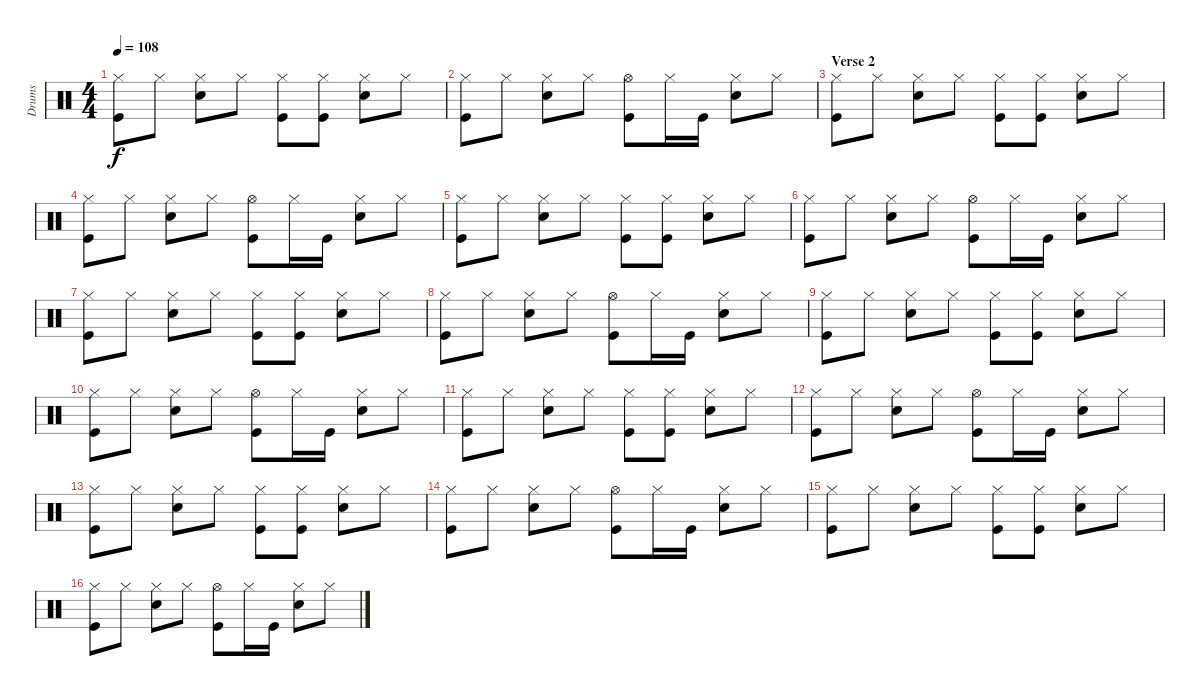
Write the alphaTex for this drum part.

\track ("Drums" "Drums") {instrument percussion}
\staff {score}
\articulation defaults
\ts (4 4)
\tempo 108
\clef neutral
\ks c
("Hi-Hat (closed)" "Kick (hit)").8{dy f} "Hi-Hat (closed)".8 ("Hi-Hat (closed)" "Snare (hit) 2").8 "Hi-Hat (closed)".8 ("Hi-Hat (closed)" "Kick (hit)").8 ("Hi-Hat (closed)" "Kick (hit)").8 ("Hi-Hat (closed)" "Snare (hit) 2").8 "Hi-Hat (closed)".8 |
("Hi-Hat (closed)" "Kick (hit)").8 "Hi-Hat (closed)".8 ("Hi-Hat (closed)" "Snare (hit) 2").8 "Hi-Hat (closed)".8 ("Hi-Hat (open)" "Kick (hit)").8 "Hi-Hat (closed)".16 "Kick (hit)".16 ("Hi-Hat (closed)" "Snare (hit) 2").8 "Hi-Hat (closed)".8 |
\section ("" "Verse 2")
("Hi-Hat (closed)" "Kick (hit)").8 "Hi-Hat (closed)".8 ("Hi-Hat (closed)" "Snare (hit) 2").8 "Hi-Hat (closed)".8 ("Hi-Hat (closed)" "Kick (hit)").8 ("Hi-Hat (closed)" "Kick (hit)").8 ("Hi-Hat (closed)" "Snare (hit) 2").8 "Hi-Hat (closed)".8 |
("Hi-Hat (closed)" "Kick (hit)").8 "Hi-Hat (closed)".8 ("Hi-Hat (closed)" "Snare (hit) 2").8 "Hi-Hat (closed)".8 ("Hi-Hat (open)" "Kick (hit)").8 "Hi-Hat (closed)".16 "Kick (hit)".16 ("Hi-Hat (closed)" "Snare (hit) 2").8 "Hi-Hat (closed)".8 |
("Hi-Hat (closed)" "Kick (hit)").8 "Hi-Hat (closed)".8 ("Hi-Hat (closed)" "Snare (hit) 2").8 "Hi-Hat (closed)".8 ("Hi-Hat (closed)" "Kick (hit)").8 ("Hi-Hat (closed)" "Kick (hit)").8 ("Hi-Hat (closed)" "Snare (hit) 2").8 "Hi-Hat (closed)".8 |
("Hi-Hat (closed)" "Kick (hit)").8 "Hi-Hat (closed)".8 ("Hi-Hat (closed)" "Snare (hit) 2").8 "Hi-Hat (closed)".8 ("Hi-Hat (open)" "Kick (hit)").8 "Hi-Hat (closed)".16 "Kick (hit)".16 ("Hi-Hat (closed)" "Snare (hit) 2").8 "Hi-Hat (closed)".8 |
("Hi-Hat (closed)" "Kick (hit)").8 "Hi-Hat (closed)".8 ("Hi-Hat (closed)" "Snare (hit) 2").8 "Hi-Hat (closed)".8 ("Hi-Hat (closed)" "Kick (hit)").8 ("Hi-Hat (closed)" "Kick (hit)").8 ("Hi-Hat (closed)" "Snare (hit) 2").8 "Hi-Hat (closed)".8 |
("Hi-Hat (closed)" "Kick (hit)").8 "Hi-Hat (closed)".8 ("Hi-Hat (closed)" "Snare (hit) 2").8 "Hi-Hat (closed)".8 ("Hi-Hat (open)" "Kick (hit)").8 "Hi-Hat (closed)".16 "Kick (hit)".16 ("Hi-Hat (closed)" "Snare (hit) 2").8 "Hi-Hat (closed)".8 |
("Hi-Hat (closed)" "Kick (hit)").8 "Hi-Hat (closed)".8 ("Hi-Hat (closed)" "Snare (hit) 2").8 "Hi-Hat (closed)".8 ("Hi-Hat (closed)" "Kick (hit)").8 ("Hi-Hat (closed)" "Kick (hit)").8 ("Hi-Hat (closed)" "Snare (hit) 2").8 "Hi-Hat (closed)".8 |
("Hi-Hat (closed)" "Kick (hit)").8 "Hi-Hat (closed)".8 ("Hi-Hat (closed)" "Snare (hit) 2").8 "Hi-Hat (closed)".8 ("Hi-Hat (open)" "Kick (hit)").8 "Hi-Hat (closed)".16 "Kick (hit)".16 ("Hi-Hat (closed)" "Snare (hit) 2").8 "Hi-Hat (closed)".8 |
("Hi-Hat (closed)" "Kick (hit)").8 "Hi-Hat (closed)".8 ("Hi-Hat (closed)" "Snare (hit) 2").8 "Hi-Hat (closed)".8 ("Hi-Hat (closed)" "Kick (hit)").8 ("Hi-Hat (closed)" "Kick (hit)").8 ("Hi-Hat (closed)" "Snare (hit) 2").8 "Hi-Hat (closed)".8 |
("Hi-Hat (closed)" "Kick (hit)").8 "Hi-Hat (closed)".8 ("Hi-Hat (closed)" "Snare (hit) 2").8 "Hi-Hat (closed)".8 ("Hi-Hat (open)" "Kick (hit)").8 "Hi-Hat (closed)".16 "Kick (hit)".16 ("Hi-Hat (closed)" "Snare (hit) 2").8 "Hi-Hat (closed)".8 |
("Hi-Hat (closed)" "Kick (hit)").8 "Hi-Hat (closed)".8 ("Hi-Hat (closed)" "Snare (hit) 2").8 "Hi-Hat (closed)".8 ("Hi-Hat (closed)" "Kick (hit)").8 ("Hi-Hat (closed)" "Kick (hit)").8 ("Hi-Hat (closed)" "Snare (hit) 2").8 "Hi-Hat (closed)".8 |
("Hi-Hat (closed)" "Kick (hit)").8 "Hi-Hat (closed)".8 ("Hi-Hat (closed)" "Snare (hit) 2").8 "Hi-Hat (closed)".8 ("Hi-Hat (open)" "Kick (hit)").8 "Hi-Hat (closed)".16 "Kick (hit)".16 ("Hi-Hat (closed)" "Snare (hit) 2").8 "Hi-Hat (closed)".8 |
("Hi-Hat (closed)" "Kick (hit)").8 "Hi-Hat (closed)".8 ("Hi-Hat (closed)" "Snare (hit) 2").8 "Hi-Hat (closed)".8 ("Hi-Hat (closed)" "Kick (hit)").8 ("Hi-Hat (closed)" "Kick (hit)").8 ("Hi-Hat (closed)" "Snare (hit) 2").8 "Hi-Hat (closed)".8 |
("Hi-Hat (closed)" "Kick (hit)").8 "Hi-Hat (closed)".8 ("Hi-Hat (closed)" "Snare (hit) 2").8 "Hi-Hat (closed)".8 ("Hi-Hat (open)" "Kick (hit)").8 "Hi-Hat (closed)".16 "Kick (hit)".16 ("Hi-Hat (closed)" "Snare (hit) 2").8 "Hi-Hat (closed)".8
